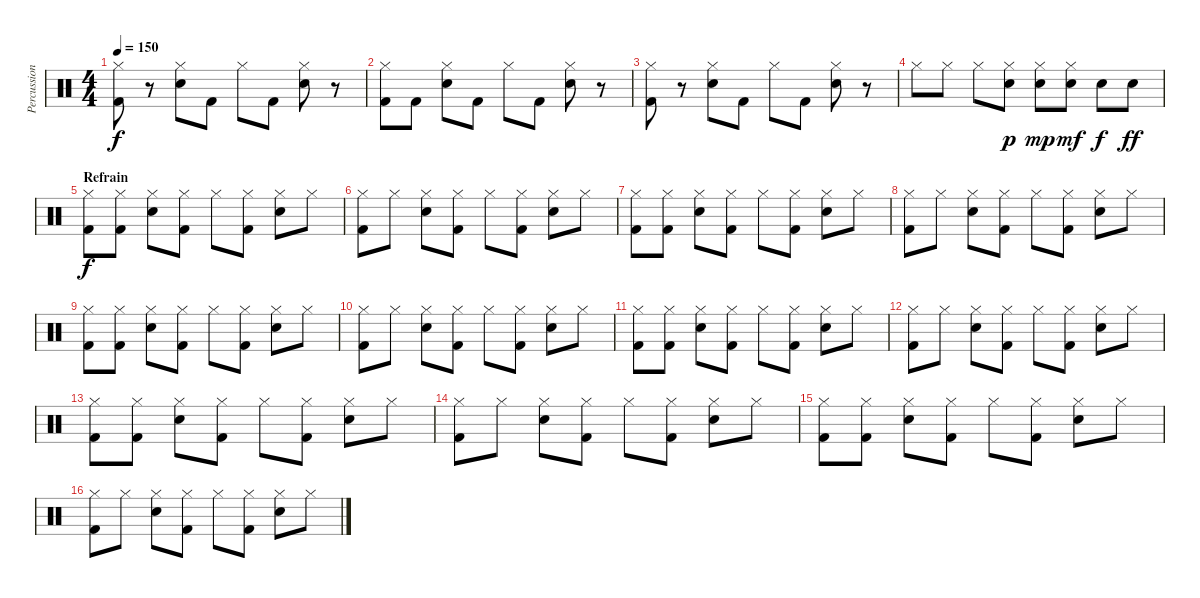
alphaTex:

\track ("Percussion" "Percussion") {instrument percussion}
\staff {score}
\articulation defaults
\ts (4 4)
\tempo 150
\clef neutral
\ks c
("Hi-Hat (closed)" "Kick (hit) 2").8{dy f} r.8 ("Hi-Hat (closed)" "Electric Snare (hit)").8 "Kick (hit) 2".8 "Hi-Hat (closed)".8 "Kick (hit) 2".8 ("Hi-Hat (closed)" "Electric Snare (hit)").8 r.8 |
("Hi-Hat (closed)" "Kick (hit) 2").8 "Kick (hit) 2".8 ("Hi-Hat (closed)" "Electric Snare (hit)").8 "Kick (hit) 2".8 "Hi-Hat (closed)".8 "Kick (hit) 2".8 ("Hi-Hat (closed)" "Electric Snare (hit)").8 r.8 |
("Hi-Hat (closed)" "Kick (hit) 2").8 r.8 ("Hi-Hat (closed)" "Electric Snare (hit)").8 "Kick (hit) 2".8 "Hi-Hat (closed)".8 "Kick (hit) 2".8 ("Hi-Hat (closed)" "Electric Snare (hit)").8 r.8 |
"Hi-Hat (closed)".8 "Hi-Hat (closed)".8 "Hi-Hat (closed)".8 ("Hi-Hat (closed)" "Electric Snare (hit)").8{dy p} ("Hi-Hat (closed)" "Electric Snare (hit)").8{dy mp} ("Hi-Hat (closed)" "Electric Snare (hit)").8{dy mf} "Electric Snare (hit)".8{dy f} "Electric Snare (hit)".8{dy ff} |
\section ("" "Refrain")
("Hi-Hat (closed)" "Kick (hit) 2").8{dy f} ("Hi-Hat (closed)" "Kick (hit) 2").8 ("Hi-Hat (closed)" "Electric Snare (hit)").8 ("Hi-Hat (closed)" "Kick (hit) 2").8 "Hi-Hat (closed)".8 ("Hi-Hat (closed)" "Kick (hit) 2").8 ("Hi-Hat (closed)" "Electric Snare (hit)").8 "Hi-Hat (closed)".8 |
("Hi-Hat (closed)" "Kick (hit) 2").8 "Hi-Hat (closed)".8 ("Hi-Hat (closed)" "Electric Snare (hit)").8 ("Hi-Hat (closed)" "Kick (hit) 2").8 "Hi-Hat (closed)".8 ("Hi-Hat (closed)" "Kick (hit) 2").8 ("Hi-Hat (closed)" "Electric Snare (hit)").8 "Hi-Hat (closed)".8 |
("Hi-Hat (closed)" "Kick (hit) 2").8 ("Hi-Hat (closed)" "Kick (hit) 2").8 ("Hi-Hat (closed)" "Electric Snare (hit)").8 ("Hi-Hat (closed)" "Kick (hit) 2").8 "Hi-Hat (closed)".8 ("Hi-Hat (closed)" "Kick (hit) 2").8 ("Hi-Hat (closed)" "Electric Snare (hit)").8 "Hi-Hat (closed)".8 |
("Hi-Hat (closed)" "Kick (hit) 2").8 "Hi-Hat (closed)".8 ("Hi-Hat (closed)" "Electric Snare (hit)").8 ("Hi-Hat (closed)" "Kick (hit) 2").8 "Hi-Hat (closed)".8 ("Hi-Hat (closed)" "Kick (hit) 2").8 ("Hi-Hat (closed)" "Electric Snare (hit)").8 "Hi-Hat (closed)".8 |
("Hi-Hat (closed)" "Kick (hit) 2").8 ("Hi-Hat (closed)" "Kick (hit) 2").8 ("Hi-Hat (closed)" "Electric Snare (hit)").8 ("Hi-Hat (closed)" "Kick (hit) 2").8 "Hi-Hat (closed)".8 ("Hi-Hat (closed)" "Kick (hit) 2").8 ("Hi-Hat (closed)" "Electric Snare (hit)").8 "Hi-Hat (closed)".8 |
("Hi-Hat (closed)" "Kick (hit) 2").8 "Hi-Hat (closed)".8 ("Hi-Hat (closed)" "Electric Snare (hit)").8 ("Hi-Hat (closed)" "Kick (hit) 2").8 "Hi-Hat (closed)".8 ("Hi-Hat (closed)" "Kick (hit) 2").8 ("Hi-Hat (closed)" "Electric Snare (hit)").8 "Hi-Hat (closed)".8 |
("Hi-Hat (closed)" "Kick (hit) 2").8 ("Hi-Hat (closed)" "Kick (hit) 2").8 ("Hi-Hat (closed)" "Electric Snare (hit)").8 ("Hi-Hat (closed)" "Kick (hit) 2").8 "Hi-Hat (closed)".8 ("Hi-Hat (closed)" "Kick (hit) 2").8 ("Hi-Hat (closed)" "Electric Snare (hit)").8 "Hi-Hat (closed)".8 |
("Hi-Hat (closed)" "Kick (hit) 2").8 "Hi-Hat (closed)".8 ("Hi-Hat (closed)" "Electric Snare (hit)").8 ("Hi-Hat (closed)" "Kick (hit) 2").8 "Hi-Hat (closed)".8 ("Hi-Hat (closed)" "Kick (hit) 2").8 ("Hi-Hat (closed)" "Electric Snare (hit)").8 "Hi-Hat (closed)".8 |
("Hi-Hat (closed)" "Kick (hit) 2").8 ("Hi-Hat (closed)" "Kick (hit) 2").8 ("Hi-Hat (closed)" "Electric Snare (hit)").8 ("Hi-Hat (closed)" "Kick (hit) 2").8 "Hi-Hat (closed)".8 ("Hi-Hat (closed)" "Kick (hit) 2").8 ("Hi-Hat (closed)" "Electric Snare (hit)").8 "Hi-Hat (closed)".8 |
("Hi-Hat (closed)" "Kick (hit) 2").8 "Hi-Hat (closed)".8 ("Hi-Hat (closed)" "Electric Snare (hit)").8 ("Hi-Hat (closed)" "Kick (hit) 2").8 "Hi-Hat (closed)".8 ("Hi-Hat (closed)" "Kick (hit) 2").8 ("Hi-Hat (closed)" "Electric Snare (hit)").8 "Hi-Hat (closed)".8 |
("Hi-Hat (closed)" "Kick (hit) 2").8 ("Hi-Hat (closed)" "Kick (hit) 2").8 ("Hi-Hat (closed)" "Electric Snare (hit)").8 ("Hi-Hat (closed)" "Kick (hit) 2").8 "Hi-Hat (closed)".8 ("Hi-Hat (closed)" "Kick (hit) 2").8 ("Hi-Hat (closed)" "Electric Snare (hit)").8 "Hi-Hat (closed)".8 |
("Hi-Hat (closed)" "Kick (hit) 2").8 "Hi-Hat (closed)".8 ("Hi-Hat (closed)" "Electric Snare (hit)").8 ("Hi-Hat (closed)" "Kick (hit) 2").8 "Hi-Hat (closed)".8 ("Hi-Hat (closed)" "Kick (hit) 2").8 ("Hi-Hat (closed)" "Electric Snare (hit)").8 "Hi-Hat (closed)".8
